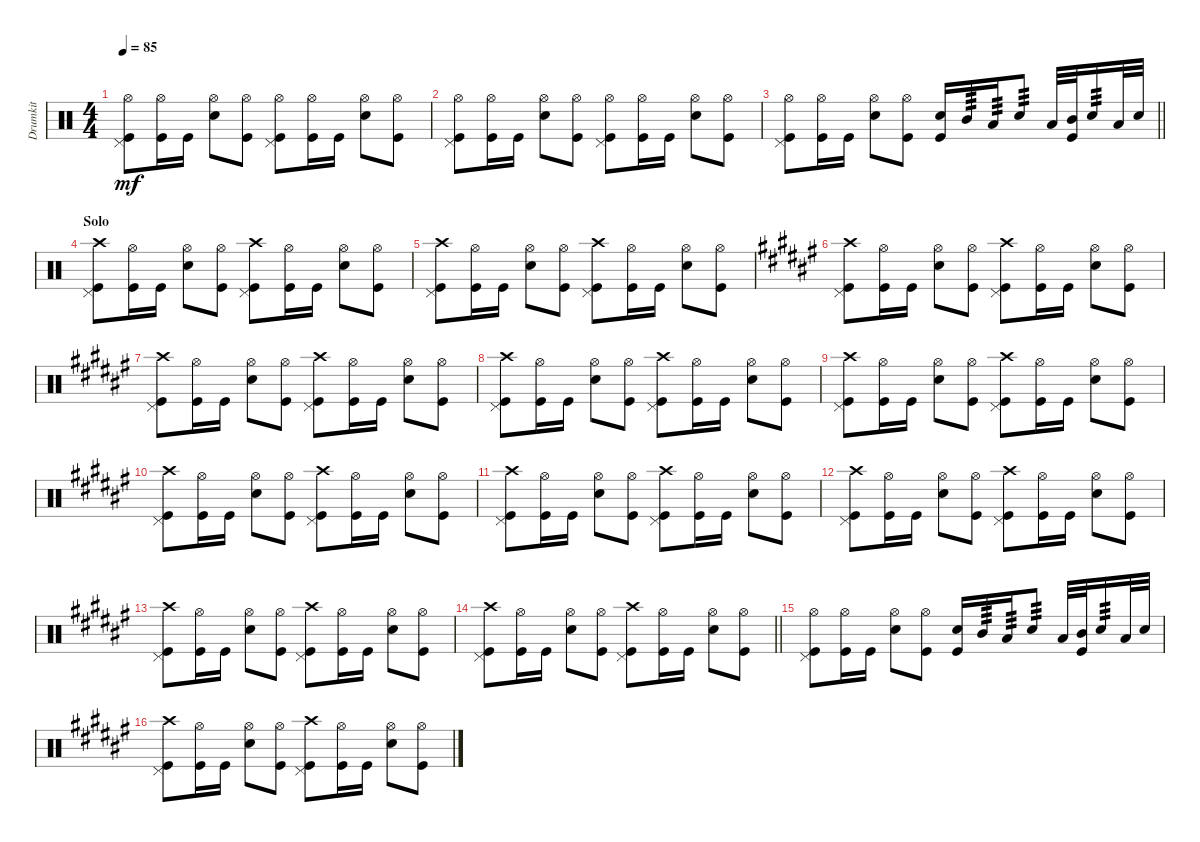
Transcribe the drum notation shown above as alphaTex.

\track ("Drumkit" "Drumkit") {instrument percussion}
\staff {score}
\articulation defaults
\ts (4 4)
\tempo 85
\clef neutral
\ks c
("Kick (hit)" "Pedal Hi-Hat (hit)" "Hi-Hat (open)").8{dy mf} ("Kick (hit)" "Hi-Hat (open)").16 "Kick (hit)".16 ("Snare (hit) 2" "Hi-Hat (open)").8 ("Kick (hit)" "Hi-Hat (open)").8 ("Kick (hit)" "Pedal Hi-Hat (hit)" "Hi-Hat (open)").8 ("Kick (hit)" "Hi-Hat (open)").16 "Kick (hit)".16 ("Snare (hit) 2" "Hi-Hat (open)").8 ("Kick (hit)" "Hi-Hat (open)").8 |
("Kick (hit)" "Pedal Hi-Hat (hit)" "Hi-Hat (open)").8 ("Kick (hit)" "Hi-Hat (open)").16 "Kick (hit)".16 ("Snare (hit) 2" "Hi-Hat (open)").8 ("Kick (hit)" "Hi-Hat (open)").8 ("Kick (hit)" "Pedal Hi-Hat (hit)" "Hi-Hat (open)").8 ("Kick (hit)" "Hi-Hat (open)").16 "Kick (hit)".16 ("Snare (hit) 2" "Hi-Hat (open)").8 ("Kick (hit)" "Hi-Hat (open)").8 |
\barLineRight lightlight
("Kick (hit)" "Pedal Hi-Hat (hit)" "Hi-Hat (open)").8 ("Kick (hit)" "Hi-Hat (open)").16 "Kick (hit)".16 ("Snare (hit) 2" "Hi-Hat (open)").8 ("Kick (hit)" "Hi-Hat (open)").8 ("Snare (hit) 2" "Kick (hit)").16 "Mid Tom (hit)".16{tp 3} "Low Tom (hit)".16{tp 3} "Snare (hit) 2".8{tp 3} "Low Tom (hit)".32 ("Kick (hit)" "Mid Tom (hit)").32 "Snare (hit) 2".16{tp 3} "Low Tom (hit)".32 "Snare (hit) 2".32 |
\section ("" "Solo")
("Kick (hit)" "Pedal Hi-Hat (hit)" "Crash high (hit)").8 ("Kick (hit)" "Hi-Hat (open)").16 "Kick (hit)".16 ("Snare (hit) 2" "Hi-Hat (open)").8 ("Kick (hit)" "Hi-Hat (open)").8 ("Kick (hit)" "Pedal Hi-Hat (hit)" "Crash high (hit)").8 ("Kick (hit)" "Hi-Hat (open)").16 "Kick (hit)".16 ("Snare (hit) 2" "Hi-Hat (open)").8 ("Kick (hit)" "Hi-Hat (open)").8 |
("Kick (hit)" "Pedal Hi-Hat (hit)" "Crash high (hit)").8 ("Kick (hit)" "Hi-Hat (open)").16 "Kick (hit)".16 ("Snare (hit) 2" "Hi-Hat (open)").8 ("Kick (hit)" "Hi-Hat (open)").8 ("Kick (hit)" "Pedal Hi-Hat (hit)" "Crash high (hit)").8 ("Kick (hit)" "Hi-Hat (open)").16 "Kick (hit)".16 ("Snare (hit) 2" "Hi-Hat (open)").8 ("Kick (hit)" "Hi-Hat (open)").8 |
\ks f#
("Kick (hit)" "Pedal Hi-Hat (hit)" "Crash high (hit)").8 ("Kick (hit)" "Hi-Hat (open)").16 "Kick (hit)".16 ("Snare (hit) 2" "Hi-Hat (open)").8 ("Kick (hit)" "Hi-Hat (open)").8 ("Kick (hit)" "Pedal Hi-Hat (hit)" "Crash high (hit)").8 ("Kick (hit)" "Hi-Hat (open)").16 "Kick (hit)".16 ("Snare (hit) 2" "Hi-Hat (open)").8 ("Kick (hit)" "Hi-Hat (open)").8 |
("Kick (hit)" "Pedal Hi-Hat (hit)" "Crash high (hit)").8 ("Kick (hit)" "Hi-Hat (open)").16 "Kick (hit)".16 ("Snare (hit) 2" "Hi-Hat (open)").8 ("Kick (hit)" "Hi-Hat (open)").8 ("Kick (hit)" "Pedal Hi-Hat (hit)" "Crash high (hit)").8 ("Kick (hit)" "Hi-Hat (open)").16 "Kick (hit)".16 ("Snare (hit) 2" "Hi-Hat (open)").8 ("Kick (hit)" "Hi-Hat (open)").8 |
("Kick (hit)" "Pedal Hi-Hat (hit)" "Crash high (hit)").8 ("Kick (hit)" "Hi-Hat (open)").16 "Kick (hit)".16 ("Snare (hit) 2" "Hi-Hat (open)").8 ("Kick (hit)" "Hi-Hat (open)").8 ("Kick (hit)" "Pedal Hi-Hat (hit)" "Crash high (hit)").8 ("Kick (hit)" "Hi-Hat (open)").16 "Kick (hit)".16 ("Snare (hit) 2" "Hi-Hat (open)").8 ("Kick (hit)" "Hi-Hat (open)").8 |
("Kick (hit)" "Pedal Hi-Hat (hit)" "Crash high (hit)").8 ("Kick (hit)" "Hi-Hat (open)").16 "Kick (hit)".16 ("Snare (hit) 2" "Hi-Hat (open)").8 ("Kick (hit)" "Hi-Hat (open)").8 ("Kick (hit)" "Pedal Hi-Hat (hit)" "Crash high (hit)").8 ("Kick (hit)" "Hi-Hat (open)").16 "Kick (hit)".16 ("Snare (hit) 2" "Hi-Hat (open)").8 ("Kick (hit)" "Hi-Hat (open)").8 |
("Kick (hit)" "Pedal Hi-Hat (hit)" "Crash high (hit)").8 ("Kick (hit)" "Hi-Hat (open)").16 "Kick (hit)".16 ("Snare (hit) 2" "Hi-Hat (open)").8 ("Kick (hit)" "Hi-Hat (open)").8 ("Kick (hit)" "Pedal Hi-Hat (hit)" "Crash high (hit)").8 ("Kick (hit)" "Hi-Hat (open)").16 "Kick (hit)".16 ("Snare (hit) 2" "Hi-Hat (open)").8 ("Kick (hit)" "Hi-Hat (open)").8 |
("Kick (hit)" "Pedal Hi-Hat (hit)" "Crash high (hit)").8 ("Kick (hit)" "Hi-Hat (open)").16 "Kick (hit)".16 ("Snare (hit) 2" "Hi-Hat (open)").8 ("Kick (hit)" "Hi-Hat (open)").8 ("Kick (hit)" "Pedal Hi-Hat (hit)" "Crash high (hit)").8 ("Kick (hit)" "Hi-Hat (open)").16 "Kick (hit)".16 ("Snare (hit) 2" "Hi-Hat (open)").8 ("Kick (hit)" "Hi-Hat (open)").8 |
("Kick (hit)" "Pedal Hi-Hat (hit)" "Crash high (hit)").8 ("Kick (hit)" "Hi-Hat (open)").16 "Kick (hit)".16 ("Snare (hit) 2" "Hi-Hat (open)").8 ("Kick (hit)" "Hi-Hat (open)").8 ("Kick (hit)" "Pedal Hi-Hat (hit)" "Crash high (hit)").8 ("Kick (hit)" "Hi-Hat (open)").16 "Kick (hit)".16 ("Snare (hit) 2" "Hi-Hat (open)").8 ("Kick (hit)" "Hi-Hat (open)").8 |
("Kick (hit)" "Pedal Hi-Hat (hit)" "Crash high (hit)").8 ("Kick (hit)" "Hi-Hat (open)").16 "Kick (hit)".16 ("Snare (hit) 2" "Hi-Hat (open)").8 ("Kick (hit)" "Hi-Hat (open)").8 ("Kick (hit)" "Pedal Hi-Hat (hit)" "Crash high (hit)").8 ("Kick (hit)" "Hi-Hat (open)").16 "Kick (hit)".16 ("Snare (hit) 2" "Hi-Hat (open)").8 ("Kick (hit)" "Hi-Hat (open)").8 |
\barLineRight lightlight
("Kick (hit)" "Pedal Hi-Hat (hit)" "Crash high (hit)").8 ("Kick (hit)" "Hi-Hat (open)").16 "Kick (hit)".16 ("Snare (hit) 2" "Hi-Hat (open)").8 ("Kick (hit)" "Hi-Hat (open)").8 ("Kick (hit)" "Pedal Hi-Hat (hit)" "Crash high (hit)").8 ("Kick (hit)" "Hi-Hat (open)").16 "Kick (hit)".16 ("Snare (hit) 2" "Hi-Hat (open)").8 ("Kick (hit)" "Hi-Hat (open)").8 |
("Kick (hit)" "Pedal Hi-Hat (hit)" "Hi-Hat (open)").8 ("Kick (hit)" "Hi-Hat (open)").16 "Kick (hit)".16 ("Snare (hit) 2" "Hi-Hat (open)").8 ("Kick (hit)" "Hi-Hat (open)").8 ("Snare (hit) 2" "Kick (hit)").16 "Mid Tom (hit)".16{tp 3} "Low Tom (hit)".16{tp 3} "Snare (hit) 2".8{tp 3} "Low Tom (hit)".32 ("Kick (hit)" "Mid Tom (hit)").32 "Snare (hit) 2".16{tp 3} "Low Tom (hit)".32 "Snare (hit) 2".32 |
("Kick (hit)" "Pedal Hi-Hat (hit)" "Crash high (hit)").8 ("Kick (hit)" "Hi-Hat (open)").16 "Kick (hit)".16 ("Snare (hit) 2" "Hi-Hat (open)").8 ("Kick (hit)" "Hi-Hat (open)").8 ("Kick (hit)" "Pedal Hi-Hat (hit)" "Crash high (hit)").8 ("Kick (hit)" "Hi-Hat (open)").16 "Kick (hit)".16 ("Snare (hit) 2" "Hi-Hat (open)").8 ("Kick (hit)" "Hi-Hat (open)").8
